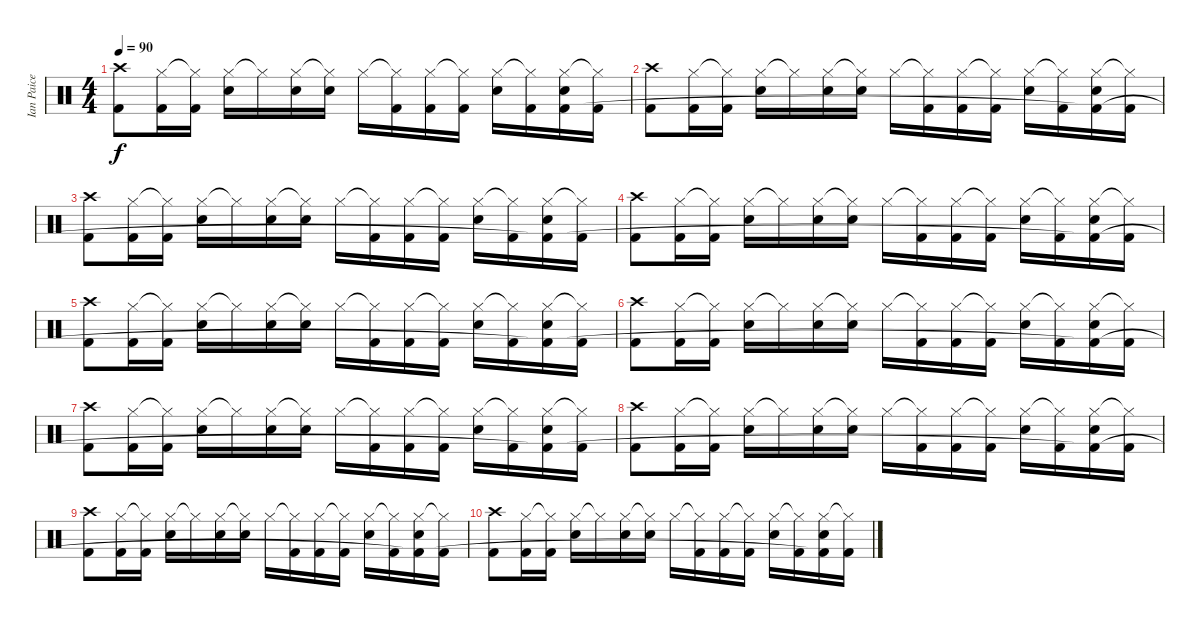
\track ("Ian Paice" "Ian Paice") {instrument percussion}
\staff {score}
\articulation defaults
\ts (4 4)
\tempo 90
\clef neutral
\ks c
("Crash high (hit)" "Kick (hit) 2").8{dy f} ("Hi-Hat (closed)" "Kick (hit) 2").16 ("Hi-Hat (closed)"{t} "Kick (hit) 2").16 ("Hi-Hat (closed)" "Snare (hit) 2").16 "Hi-Hat (closed)"{t}.16 ("Hi-Hat (closed)" "Snare (hit) 2").16 ("Hi-Hat (closed)"{t} "Snare (hit) 2").16 "Hi-Hat (closed)".16 ("Hi-Hat (closed)"{t} "Kick (hit) 2").16 ("Hi-Hat (closed)" "Kick (hit) 2").16 ("Hi-Hat (closed)"{t} "Kick (hit) 2").16 ("Hi-Hat (closed)" "Snare (hit) 2").16 ("Hi-Hat (closed)"{t} "Kick (hit) 2").16 ("Hi-Hat (closed)" "Snare (hit) 2" "Kick (hit) 2"{t}).16 ("Hi-Hat (closed)"{t} "Kick (hit) 2").16 |
("Crash high (hit)" "Kick (hit) 2").8 ("Hi-Hat (closed)" "Kick (hit) 2").16 ("Hi-Hat (closed)"{t} "Kick (hit) 2").16 ("Hi-Hat (closed)" "Snare (hit) 2").16 "Hi-Hat (closed)"{t}.16 ("Hi-Hat (closed)" "Snare (hit) 2").16 ("Hi-Hat (closed)"{t} "Snare (hit) 2").16 "Hi-Hat (closed)".16 ("Hi-Hat (closed)"{t} "Kick (hit) 2").16 ("Hi-Hat (closed)" "Kick (hit) 2").16 ("Hi-Hat (closed)"{t} "Kick (hit) 2").16 ("Hi-Hat (closed)" "Snare (hit) 2").16 ("Hi-Hat (closed)"{t} "Kick (hit) 2").16 ("Hi-Hat (closed)" "Snare (hit) 2" "Kick (hit) 2"{t}).16 ("Hi-Hat (closed)"{t} "Kick (hit) 2").16 |
("Crash high (hit)" "Kick (hit) 2").8 ("Hi-Hat (closed)" "Kick (hit) 2").16 ("Hi-Hat (closed)"{t} "Kick (hit) 2").16 ("Hi-Hat (closed)" "Snare (hit) 2").16 "Hi-Hat (closed)"{t}.16 ("Hi-Hat (closed)" "Snare (hit) 2").16 ("Hi-Hat (closed)"{t} "Snare (hit) 2").16 "Hi-Hat (closed)".16 ("Hi-Hat (closed)"{t} "Kick (hit) 2").16 ("Hi-Hat (closed)" "Kick (hit) 2").16 ("Hi-Hat (closed)"{t} "Kick (hit) 2").16 ("Hi-Hat (closed)" "Snare (hit) 2").16 ("Hi-Hat (closed)"{t} "Kick (hit) 2").16 ("Hi-Hat (closed)" "Snare (hit) 2" "Kick (hit) 2"{t}).16 ("Hi-Hat (closed)"{t} "Kick (hit) 2").16 |
("Crash high (hit)" "Kick (hit) 2").8 ("Hi-Hat (closed)" "Kick (hit) 2").16 ("Hi-Hat (closed)"{t} "Kick (hit) 2").16 ("Hi-Hat (closed)" "Snare (hit) 2").16 "Hi-Hat (closed)"{t}.16 ("Hi-Hat (closed)" "Snare (hit) 2").16 ("Hi-Hat (closed)"{t} "Snare (hit) 2").16 "Hi-Hat (closed)".16 ("Hi-Hat (closed)"{t} "Kick (hit) 2").16 ("Hi-Hat (closed)" "Kick (hit) 2").16 ("Hi-Hat (closed)"{t} "Kick (hit) 2").16 ("Hi-Hat (closed)" "Snare (hit) 2").16 ("Hi-Hat (closed)"{t} "Kick (hit) 2").16 ("Hi-Hat (closed)" "Snare (hit) 2" "Kick (hit) 2"{t}).16 ("Hi-Hat (closed)"{t} "Kick (hit) 2").16 |
("Crash high (hit)" "Kick (hit) 2").8 ("Hi-Hat (closed)" "Kick (hit) 2").16 ("Hi-Hat (closed)"{t} "Kick (hit) 2").16 ("Hi-Hat (closed)" "Snare (hit) 2").16 "Hi-Hat (closed)"{t}.16 ("Hi-Hat (closed)" "Snare (hit) 2").16 ("Hi-Hat (closed)"{t} "Snare (hit) 2").16 "Hi-Hat (closed)".16 ("Hi-Hat (closed)"{t} "Kick (hit) 2").16 ("Hi-Hat (closed)" "Kick (hit) 2").16 ("Hi-Hat (closed)"{t} "Kick (hit) 2").16 ("Hi-Hat (closed)" "Snare (hit) 2").16 ("Hi-Hat (closed)"{t} "Kick (hit) 2").16 ("Hi-Hat (closed)" "Snare (hit) 2" "Kick (hit) 2"{t}).16 ("Hi-Hat (closed)"{t} "Kick (hit) 2").16 |
("Crash high (hit)" "Kick (hit) 2").8 ("Hi-Hat (closed)" "Kick (hit) 2").16 ("Hi-Hat (closed)"{t} "Kick (hit) 2").16 ("Hi-Hat (closed)" "Snare (hit) 2").16 "Hi-Hat (closed)"{t}.16 ("Hi-Hat (closed)" "Snare (hit) 2").16 ("Hi-Hat (closed)"{t} "Snare (hit) 2").16 "Hi-Hat (closed)".16 ("Hi-Hat (closed)"{t} "Kick (hit) 2").16 ("Hi-Hat (closed)" "Kick (hit) 2").16 ("Hi-Hat (closed)"{t} "Kick (hit) 2").16 ("Hi-Hat (closed)" "Snare (hit) 2").16 ("Hi-Hat (closed)"{t} "Kick (hit) 2").16 ("Hi-Hat (closed)" "Snare (hit) 2" "Kick (hit) 2"{t}).16 ("Hi-Hat (closed)"{t} "Kick (hit) 2").16 |
("Crash high (hit)" "Kick (hit) 2").8 ("Hi-Hat (closed)" "Kick (hit) 2").16 ("Hi-Hat (closed)"{t} "Kick (hit) 2").16 ("Hi-Hat (closed)" "Snare (hit) 2").16 "Hi-Hat (closed)"{t}.16 ("Hi-Hat (closed)" "Snare (hit) 2").16 ("Hi-Hat (closed)"{t} "Snare (hit) 2").16 "Hi-Hat (closed)".16 ("Hi-Hat (closed)"{t} "Kick (hit) 2").16 ("Hi-Hat (closed)" "Kick (hit) 2").16 ("Hi-Hat (closed)"{t} "Kick (hit) 2").16 ("Hi-Hat (closed)" "Snare (hit) 2").16 ("Hi-Hat (closed)"{t} "Kick (hit) 2").16 ("Hi-Hat (closed)" "Snare (hit) 2" "Kick (hit) 2"{t}).16 ("Hi-Hat (closed)"{t} "Kick (hit) 2").16 |
("Crash high (hit)" "Kick (hit) 2").8 ("Hi-Hat (closed)" "Kick (hit) 2").16 ("Hi-Hat (closed)"{t} "Kick (hit) 2").16 ("Hi-Hat (closed)" "Snare (hit) 2").16 "Hi-Hat (closed)"{t}.16 ("Hi-Hat (closed)" "Snare (hit) 2").16 ("Hi-Hat (closed)"{t} "Snare (hit) 2").16 "Hi-Hat (closed)".16 ("Hi-Hat (closed)"{t} "Kick (hit) 2").16 ("Hi-Hat (closed)" "Kick (hit) 2").16 ("Hi-Hat (closed)"{t} "Kick (hit) 2").16 ("Hi-Hat (closed)" "Snare (hit) 2").16 ("Hi-Hat (closed)"{t} "Kick (hit) 2").16 ("Hi-Hat (closed)" "Snare (hit) 2" "Kick (hit) 2"{t}).16 ("Hi-Hat (closed)"{t} "Kick (hit) 2").16 |
("Crash high (hit)" "Kick (hit) 2").8 ("Hi-Hat (closed)" "Kick (hit) 2").16 ("Hi-Hat (closed)"{t} "Kick (hit) 2").16 ("Hi-Hat (closed)" "Snare (hit) 2").16 "Hi-Hat (closed)"{t}.16 ("Hi-Hat (closed)" "Snare (hit) 2").16 ("Hi-Hat (closed)"{t} "Snare (hit) 2").16 "Hi-Hat (closed)".16 ("Hi-Hat (closed)"{t} "Kick (hit) 2").16 ("Hi-Hat (closed)" "Kick (hit) 2").16 ("Hi-Hat (closed)"{t} "Kick (hit) 2").16 ("Hi-Hat (closed)" "Snare (hit) 2").16 ("Hi-Hat (closed)"{t} "Kick (hit) 2").16 ("Hi-Hat (closed)" "Snare (hit) 2" "Kick (hit) 2"{t}).16 ("Hi-Hat (closed)"{t} "Kick (hit) 2").16 |
("Crash high (hit)" "Kick (hit) 2").8 ("Hi-Hat (closed)" "Kick (hit) 2").16 ("Hi-Hat (closed)"{t} "Kick (hit) 2").16 ("Hi-Hat (closed)" "Snare (hit) 2").16 "Hi-Hat (closed)"{t}.16 ("Hi-Hat (closed)" "Snare (hit) 2").16 ("Hi-Hat (closed)"{t} "Snare (hit) 2").16 "Hi-Hat (closed)".16 ("Hi-Hat (closed)"{t} "Kick (hit) 2").16 ("Hi-Hat (closed)" "Kick (hit) 2").16 ("Hi-Hat (closed)"{t} "Kick (hit) 2").16 ("Hi-Hat (closed)" "Snare (hit) 2").16 ("Hi-Hat (closed)"{t} "Kick (hit) 2").16 ("Hi-Hat (closed)" "Snare (hit) 2" "Kick (hit) 2"{t}).16 ("Hi-Hat (closed)"{t} "Kick (hit) 2").16
